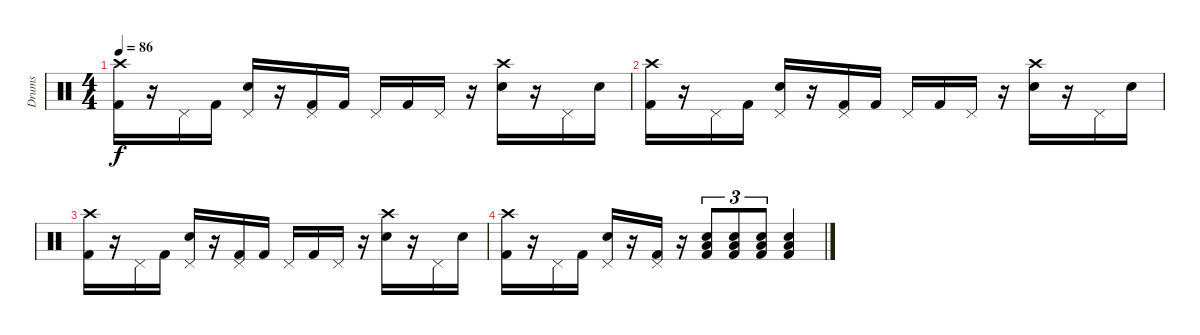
\track ("Drums" "Drums") {instrument percussion}
\staff {score}
\articulation defaults
\ts (4 4)
\tempo 86
\clef neutral
\ks c
("Crash high (hit)" "Kick (hit) 2").16{dy f} r.16 "Pedal Hi-Hat (hit)".16 "Kick (hit) 2".16 ("Pedal Hi-Hat (hit)" "Snare (hit) 2").16 r.16 ("Pedal Hi-Hat (hit)" "Kick (hit) 2").16 "Kick (hit) 2".16 "Pedal Hi-Hat (hit)".16 "Kick (hit) 2".16 "Pedal Hi-Hat (hit)".16 r.16 ("Crash high (hit)" "Snare (hit) 2").16 r.16 "Pedal Hi-Hat (hit)".16 "Snare (hit) 2".16 |
("Crash high (hit)" "Kick (hit) 2").16 r.16 "Pedal Hi-Hat (hit)".16 "Kick (hit) 2".16 ("Pedal Hi-Hat (hit)" "Snare (hit) 2").16 r.16 ("Pedal Hi-Hat (hit)" "Kick (hit) 2").16 "Kick (hit) 2".16 "Pedal Hi-Hat (hit)".16 "Kick (hit) 2".16 "Pedal Hi-Hat (hit)".16 r.16 ("Crash high (hit)" "Snare (hit) 2").16 r.16 "Pedal Hi-Hat (hit)".16 "Snare (hit) 2".16 |
("Crash high (hit)" "Kick (hit) 2").16 r.16 "Pedal Hi-Hat (hit)".16 "Kick (hit) 2".16 ("Pedal Hi-Hat (hit)" "Snare (hit) 2").16 r.16 ("Pedal Hi-Hat (hit)" "Kick (hit) 2").16 "Kick (hit) 2".16 "Pedal Hi-Hat (hit)".16 "Kick (hit) 2".16 "Pedal Hi-Hat (hit)".16 r.16 ("Crash high (hit)" "Snare (hit) 2").16 r.16 "Pedal Hi-Hat (hit)".16 "Snare (hit) 2".16 |
("Crash high (hit)" "Kick (hit) 2").16 r.16 "Pedal Hi-Hat (hit)".16 "Kick (hit) 2".16 ("Pedal Hi-Hat (hit)" "Snare (hit) 2").16 r.16 ("Pedal Hi-Hat (hit)" "Kick (hit) 2").16 r.16 ("Low Floor Tom (hit)" "Snare (hit) 2" "Kick (hit) 2").8{tu (3 2)} ("Low Floor Tom (hit)" "Snare (hit) 2" "Kick (hit) 2").8{tu (3 2)} ("Low Floor Tom (hit)" "Snare (hit) 2" "Kick (hit) 2").8{tu (3 2)} ("Low Floor Tom (hit)" "Snare (hit) 2" "Kick (hit) 2").4
